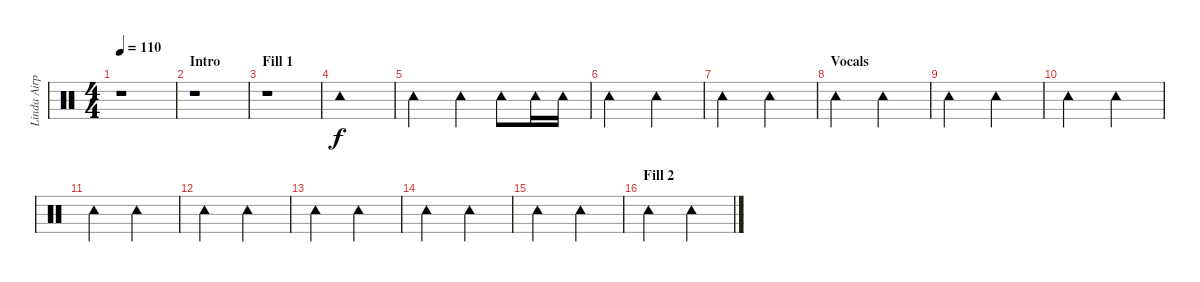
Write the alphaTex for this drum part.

\track ("Linda Airplane" "Linda Airp") {instrument percussion}
\staff {score}
\articulation defaults
\ts (4 4)
\tempo 110
\clef neutral
\ks c
r.1{dy f} |
\section ("" "Intro")
r.1 |
\section ("" "Fill 1")
r.1 |
"Tambourine (hit)".1 |
"Tambourine (hit)".2 "Tambourine (hit)".4 "Tambourine (hit)".8 "Tambourine (hit)".16 "Tambourine (hit)".16 |
"Tambourine (hit)".2 "Tambourine (hit)".2 |
"Tambourine (hit)".2 "Tambourine (hit)".2 |
\section ("" "Vocals")
"Tambourine (hit)".2 "Tambourine (hit)".2 |
"Tambourine (hit)".2 "Tambourine (hit)".2 |
"Tambourine (hit)".2 "Tambourine (hit)".2 |
"Tambourine (hit)".2 "Tambourine (hit)".2 |
"Tambourine (hit)".2 "Tambourine (hit)".2 |
"Tambourine (hit)".2 "Tambourine (hit)".2 |
"Tambourine (hit)".2 "Tambourine (hit)".2 |
"Tambourine (hit)".2 "Tambourine (hit)".2 |
\section ("" "Fill 2")
"Tambourine (hit)".2 "Tambourine (hit)".2
